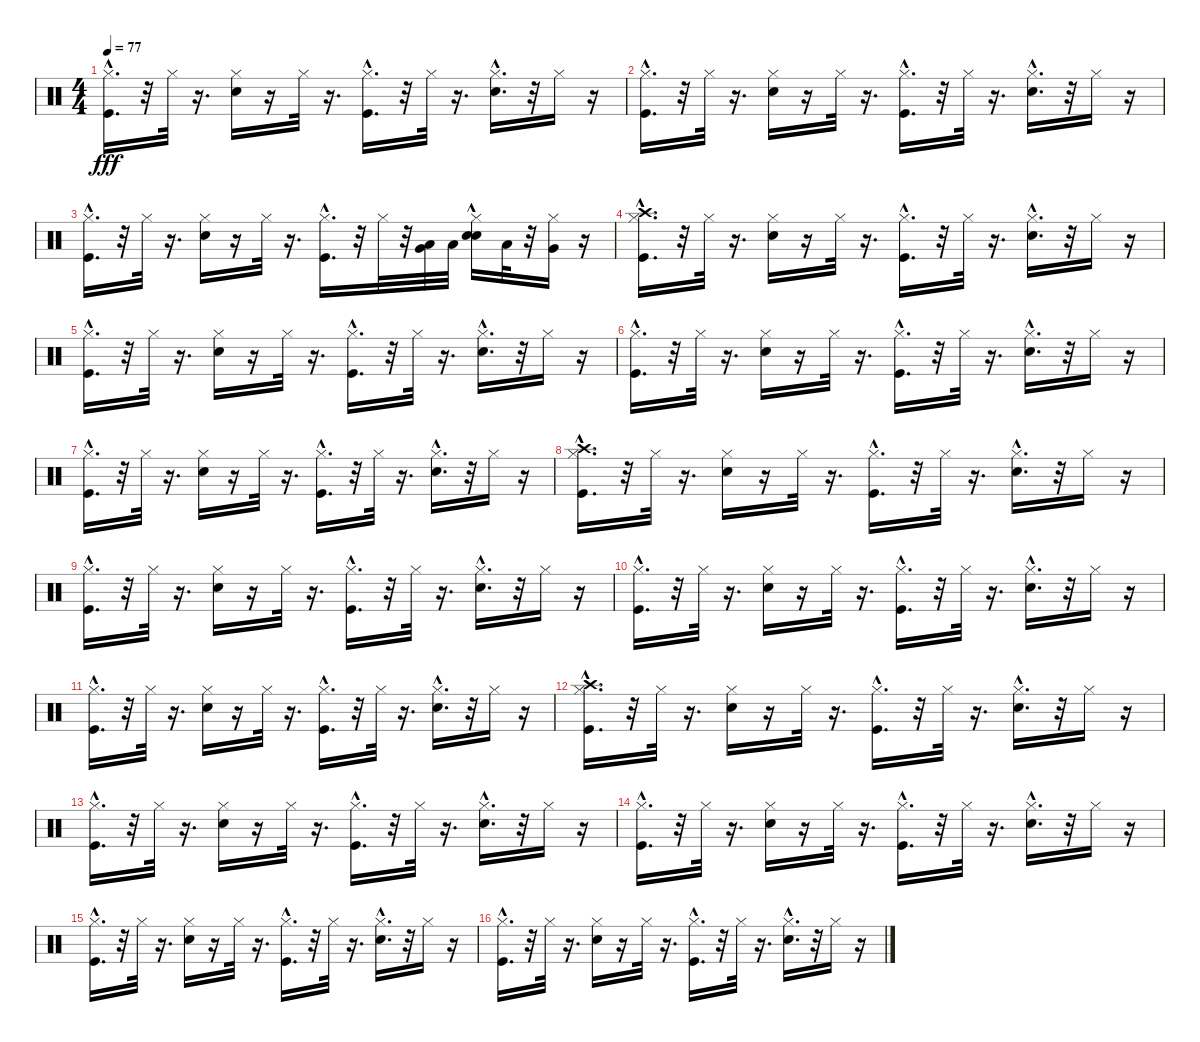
\track "" {instrument percussion}
\staff {score}
\articulation defaults
\ts (4 4)
\tempo 77
\clef neutral
\ks c
("Kick (hit)"{hac} "Hi-Hat (closed)").16{d dy fff} r.32 "Hi-Hat (closed)".32 r.16{d} ("Snare (hit) 2" "Hi-Hat (closed)").16 r.16 "Hi-Hat (closed)".32 r.16{d} ("Kick (hit)"{hac} "Hi-Hat (closed)").16{d} r.32 "Hi-Hat (closed)".32 r.16{d} ("Snare (hit) 2"{hac} "Hi-Hat (closed)").16{d} r.32 "Hi-Hat (closed)".16 r.16 |
("Kick (hit)"{hac} "Hi-Hat (closed)").16{d} r.32 "Hi-Hat (closed)".32 r.16{d} ("Snare (hit) 2" "Hi-Hat (closed)").16 r.16 "Hi-Hat (closed)".32 r.16{d} ("Kick (hit)"{hac} "Hi-Hat (closed)").16{d} r.32 "Hi-Hat (closed)".32 r.16{d} ("Snare (hit) 2"{hac} "Hi-Hat (closed)").16{d} r.32 "Hi-Hat (closed)".16 r.16 |
("Kick (hit)"{hac} "Hi-Hat (closed)").16{d} r.32 "Hi-Hat (closed)".32 r.16{d} ("Snare (hit) 2" "Hi-Hat (closed)").16 r.16 "Hi-Hat (closed)".32 r.16{d} ("Kick (hit)"{hac} "Hi-Hat (closed)").16{d} r.32 "Hi-Hat (closed)".32 r.32 ("Low Tom (hit)" "Very Low Tom (hit)").32 "Low Floor Tom (hit)".32 ("Snare (hit) 2"{hac} "Hi-Hat (closed)" "Electric Snare (hit)").16 "Low Floor Tom (hit)".32 r.32 ("Hi-Hat (closed)" "Very Low Tom (hit)").16 r.16 |
("Kick (hit)"{hac} "Hi-Hat (closed)" "Crash high (hit)"{hac}).16{d} r.32 "Hi-Hat (closed)".32 r.16{d} ("Snare (hit) 2" "Hi-Hat (closed)").16 r.16 "Hi-Hat (closed)".32 r.16{d} ("Kick (hit)"{hac} "Hi-Hat (closed)").16{d} r.32 "Hi-Hat (closed)".32 r.16{d} ("Snare (hit) 2"{hac} "Hi-Hat (closed)").16{d} r.32 "Hi-Hat (closed)".16 r.16 |
("Kick (hit)"{hac} "Hi-Hat (closed)").16{d} r.32 "Hi-Hat (closed)".32 r.16{d} ("Snare (hit) 2" "Hi-Hat (closed)").16 r.16 "Hi-Hat (closed)".32 r.16{d} ("Kick (hit)"{hac} "Hi-Hat (closed)").16{d} r.32 "Hi-Hat (closed)".32 r.16{d} ("Snare (hit) 2"{hac} "Hi-Hat (closed)").16{d} r.32 "Hi-Hat (closed)".16 r.16 |
("Kick (hit)"{hac} "Hi-Hat (closed)").16{d} r.32 "Hi-Hat (closed)".32 r.16{d} ("Snare (hit) 2" "Hi-Hat (closed)").16 r.16 "Hi-Hat (closed)".32 r.16{d} ("Kick (hit)"{hac} "Hi-Hat (closed)").16{d} r.32 "Hi-Hat (closed)".32 r.16{d} ("Snare (hit) 2"{hac} "Hi-Hat (closed)").16{d} r.32 "Hi-Hat (closed)".16 r.16 |
("Kick (hit)"{hac} "Hi-Hat (closed)").16{d} r.32 "Hi-Hat (closed)".32 r.16{d} ("Snare (hit) 2" "Hi-Hat (closed)").16 r.16 "Hi-Hat (closed)".32 r.16{d} ("Kick (hit)"{hac} "Hi-Hat (closed)").16{d} r.32 "Hi-Hat (closed)".32 r.16{d} ("Snare (hit) 2"{hac} "Hi-Hat (closed)").16{d} r.32 "Hi-Hat (closed)".16 r.16 |
("Crash high (hit)" "Kick (hit)"{hac} "Hi-Hat (closed)").16{d} r.32 "Hi-Hat (closed)".32 r.16{d} ("Snare (hit) 2" "Hi-Hat (closed)").16 r.16 "Hi-Hat (closed)".32 r.16{d} ("Kick (hit)"{hac} "Hi-Hat (closed)").16{d} r.32 "Hi-Hat (closed)".32 r.16{d} ("Snare (hit) 2"{hac} "Hi-Hat (closed)").16{d} r.32 "Hi-Hat (closed)".16 r.16 |
("Kick (hit)"{hac} "Hi-Hat (closed)").16{d} r.32 "Hi-Hat (closed)".32 r.16{d} ("Snare (hit) 2" "Hi-Hat (closed)").16 r.16 "Hi-Hat (closed)".32 r.16{d} ("Kick (hit)"{hac} "Hi-Hat (closed)").16{d} r.32 "Hi-Hat (closed)".32 r.16{d} ("Snare (hit) 2"{hac} "Hi-Hat (closed)").16{d} r.32 "Hi-Hat (closed)".16 r.16 |
("Kick (hit)"{hac} "Hi-Hat (closed)").16{d} r.32 "Hi-Hat (closed)".32 r.16{d} ("Snare (hit) 2" "Hi-Hat (closed)").16 r.16 "Hi-Hat (closed)".32 r.16{d} ("Kick (hit)"{hac} "Hi-Hat (closed)").16{d} r.32 "Hi-Hat (closed)".32 r.16{d} ("Snare (hit) 2"{hac} "Hi-Hat (closed)").16{d} r.32 "Hi-Hat (closed)".16 r.16 |
("Kick (hit)"{hac} "Hi-Hat (closed)").16{d} r.32 "Hi-Hat (closed)".32 r.16{d} ("Snare (hit) 2" "Hi-Hat (closed)").16 r.16 "Hi-Hat (closed)".32 r.16{d} ("Kick (hit)"{hac} "Hi-Hat (closed)").16{d} r.32 "Hi-Hat (closed)".32 r.16{d} ("Snare (hit) 2"{hac} "Hi-Hat (closed)").16{d} r.32 "Hi-Hat (closed)".16 r.16 |
("Crash high (hit)" "Kick (hit)"{hac} "Hi-Hat (closed)").16{d} r.32 "Hi-Hat (closed)".32 r.16{d} ("Snare (hit) 2" "Hi-Hat (closed)").16 r.16 "Hi-Hat (closed)".32 r.16{d} ("Kick (hit)"{hac} "Hi-Hat (closed)").16{d} r.32 "Hi-Hat (closed)".32 r.16{d} ("Snare (hit) 2"{hac} "Hi-Hat (closed)").16{d} r.32 "Hi-Hat (closed)".16 r.16 |
("Kick (hit)"{hac} "Hi-Hat (closed)").16{d} r.32 "Hi-Hat (closed)".32 r.16{d} ("Snare (hit) 2" "Hi-Hat (closed)").16 r.16 "Hi-Hat (closed)".32 r.16{d} ("Kick (hit)"{hac} "Hi-Hat (closed)").16{d} r.32 "Hi-Hat (closed)".32 r.16{d} ("Snare (hit) 2"{hac} "Hi-Hat (closed)").16{d} r.32 "Hi-Hat (closed)".16 r.16 |
("Kick (hit)"{hac} "Hi-Hat (closed)").16{d} r.32 "Hi-Hat (closed)".32 r.16{d} ("Snare (hit) 2" "Hi-Hat (closed)").16 r.16 "Hi-Hat (closed)".32 r.16{d} ("Kick (hit)"{hac} "Hi-Hat (closed)").16{d} r.32 "Hi-Hat (closed)".32 r.16{d} ("Snare (hit) 2"{hac} "Hi-Hat (closed)").16{d} r.32 "Hi-Hat (closed)".16 r.16 |
("Kick (hit)"{hac} "Hi-Hat (closed)").16{d} r.32 "Hi-Hat (closed)".32 r.16{d} ("Snare (hit) 2" "Hi-Hat (closed)").16 r.16 "Hi-Hat (closed)".32 r.16{d} ("Kick (hit)"{hac} "Hi-Hat (closed)").16{d} r.32 "Hi-Hat (closed)".32 r.16{d} ("Snare (hit) 2"{hac} "Hi-Hat (closed)").16{d} r.32 "Hi-Hat (closed)".16 r.16 |
("Kick (hit)"{hac} "Hi-Hat (closed)").16{d} r.32 "Hi-Hat (closed)".32 r.16{d} ("Snare (hit) 2" "Hi-Hat (closed)").16 r.16 "Hi-Hat (closed)".32 r.16{d} ("Kick (hit)"{hac} "Hi-Hat (closed)").16{d} r.32 "Hi-Hat (closed)".32 r.16{d} ("Snare (hit) 2"{hac} "Hi-Hat (closed)").16{d} r.32 "Hi-Hat (closed)".16 r.16
